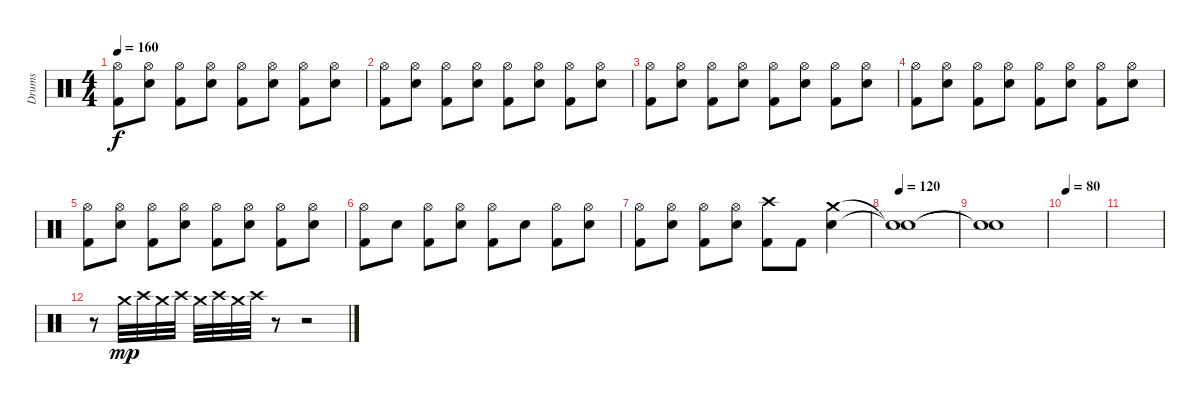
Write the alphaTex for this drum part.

\track ("Drums" "Drums") {instrument percussion}
\staff {score}
\articulation defaults
\ts (4 4)
\tempo 160
\clef neutral
\ks c
("Hi-Hat (open)" "Kick (hit) 2").8{dy f} ("Hi-Hat (open)" "Snare (hit) 2").8 ("Hi-Hat (open)" "Kick (hit) 2").8 ("Hi-Hat (open)" "Snare (hit) 2").8 ("Hi-Hat (open)" "Kick (hit) 2").8 ("Hi-Hat (open)" "Snare (hit) 2").8 ("Hi-Hat (open)" "Kick (hit) 2").8 ("Hi-Hat (open)" "Snare (hit) 2").8 |
("Hi-Hat (open)" "Kick (hit) 2").8 ("Hi-Hat (open)" "Snare (hit) 2").8 ("Hi-Hat (open)" "Kick (hit) 2").8 ("Hi-Hat (open)" "Snare (hit) 2").8 ("Hi-Hat (open)" "Kick (hit) 2").8 ("Hi-Hat (open)" "Snare (hit) 2").8 ("Hi-Hat (open)" "Kick (hit) 2").8 ("Hi-Hat (open)" "Snare (hit) 2").8 |
("Hi-Hat (open)" "Kick (hit) 2").8 ("Hi-Hat (open)" "Snare (hit) 2").8 ("Hi-Hat (open)" "Kick (hit) 2").8 ("Hi-Hat (open)" "Snare (hit) 2").8 ("Hi-Hat (open)" "Kick (hit) 2").8 ("Hi-Hat (open)" "Snare (hit) 2").8 ("Hi-Hat (open)" "Kick (hit) 2").8 ("Hi-Hat (open)" "Snare (hit) 2").8 |
("Hi-Hat (open)" "Kick (hit) 2").8 ("Hi-Hat (open)" "Snare (hit) 2").8 ("Hi-Hat (open)" "Kick (hit) 2").8 ("Hi-Hat (open)" "Snare (hit) 2").8 ("Hi-Hat (open)" "Kick (hit) 2").8 ("Hi-Hat (open)" "Snare (hit) 2").8 ("Hi-Hat (open)" "Kick (hit) 2").8 ("Hi-Hat (open)" "Snare (hit) 2").8 |
("Hi-Hat (open)" "Kick (hit) 2").8 ("Hi-Hat (open)" "Snare (hit) 2").8 ("Hi-Hat (open)" "Kick (hit) 2").8 ("Hi-Hat (open)" "Snare (hit) 2").8 ("Hi-Hat (open)" "Kick (hit) 2").8 ("Hi-Hat (open)" "Snare (hit) 2").8 ("Hi-Hat (open)" "Kick (hit) 2").8 ("Hi-Hat (open)" "Snare (hit) 2").8 |
("Hi-Hat (open)" "Kick (hit) 2").8 "Snare (hit) 2".8 ("Hi-Hat (open)" "Kick (hit) 2").8 ("Hi-Hat (open)" "Snare (hit) 2").8 ("Hi-Hat (open)" "Kick (hit) 2").8 "Snare (hit) 2".8 ("Hi-Hat (open)" "Kick (hit) 2").8 ("Hi-Hat (open)" "Snare (hit) 2").8 |
("Hi-Hat (open)" "Kick (hit) 2").8 ("Hi-Hat (open)" "Snare (hit) 2").8 ("Hi-Hat (open)" "Kick (hit) 2").8 ("Hi-Hat (open)" "Snare (hit) 2").8 ("Crash high (hit)" "Kick (hit) 2").8 "Kick (hit) 2".8 ("Crash medium (hit)" "Snare (hit) 2").4 |
\tempo 120
("Snare (hit)"{t} "Snare (hit)"{t}).1{volume 0} |
("Snare (hit)"{t} "Snare (hit)"{t}).1 |
\tempo 80
|
|
r.8{volume 13} "Crash medium (hit)".32{dy mp} "Crash high (hit)".32 "Crash medium (hit)".32 "Crash high (hit)".32 "Crash medium (hit)".32 "Crash high (hit)".32 "Crash medium (hit)".32 "Crash high (hit)".32 r.8 r.2
